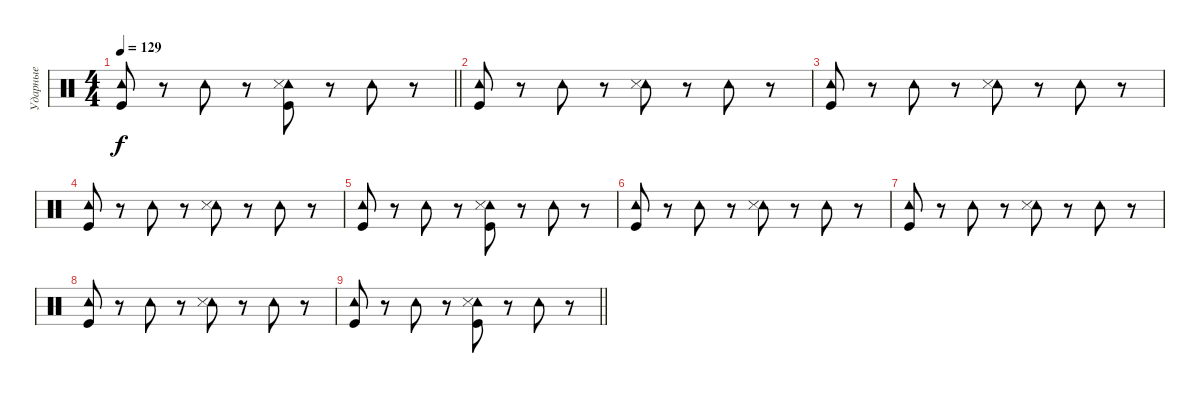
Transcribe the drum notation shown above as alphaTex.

\track ("Ударные" "Ударные") {instrument percussion}
\staff {score}
\articulation defaults
\ts (4 4)
\tempo 129
\clef neutral
\barLineRight lightlight
\ks c
("Tambourine (hit)" "Kick (hit)").8{dy f} r.8 "Tambourine (hit)".8 r.8 ("Tambourine (hit)" "Snare (side stick) 3" "Kick (hit)").8 r.8 "Tambourine (hit)".8 r.8 |
("Tambourine (hit)" "Kick (hit)").8 r.8 "Tambourine (hit)".8 r.8 ("Tambourine (hit)" "Snare (side stick) 3").8 r.8 "Tambourine (hit)".8 r.8 |
("Tambourine (hit)" "Kick (hit)").8 r.8 "Tambourine (hit)".8 r.8 ("Tambourine (hit)" "Snare (side stick) 3").8 r.8 "Tambourine (hit)".8 r.8 |
("Tambourine (hit)" "Kick (hit)").8 r.8 "Tambourine (hit)".8 r.8 ("Tambourine (hit)" "Snare (side stick) 3").8 r.8 "Tambourine (hit)".8 r.8 |
("Tambourine (hit)" "Kick (hit)").8 r.8 "Tambourine (hit)".8 r.8 ("Tambourine (hit)" "Snare (side stick) 3" "Kick (hit)").8 r.8 "Tambourine (hit)".8 r.8 |
("Tambourine (hit)" "Kick (hit)").8 r.8 "Tambourine (hit)".8 r.8 ("Tambourine (hit)" "Snare (side stick) 3").8 r.8 "Tambourine (hit)".8 r.8 |
("Tambourine (hit)" "Kick (hit)").8 r.8 "Tambourine (hit)".8 r.8 ("Tambourine (hit)" "Snare (side stick) 3").8 r.8 "Tambourine (hit)".8 r.8 |
("Tambourine (hit)" "Kick (hit)").8 r.8 "Tambourine (hit)".8 r.8 ("Tambourine (hit)" "Snare (side stick) 3").8 r.8 "Tambourine (hit)".8 r.8 |
\barLineRight lightlight
("Tambourine (hit)" "Kick (hit)").8 r.8 "Tambourine (hit)".8 r.8 ("Tambourine (hit)" "Snare (side stick) 3" "Kick (hit)").8 r.8 "Tambourine (hit)".8 r.8
